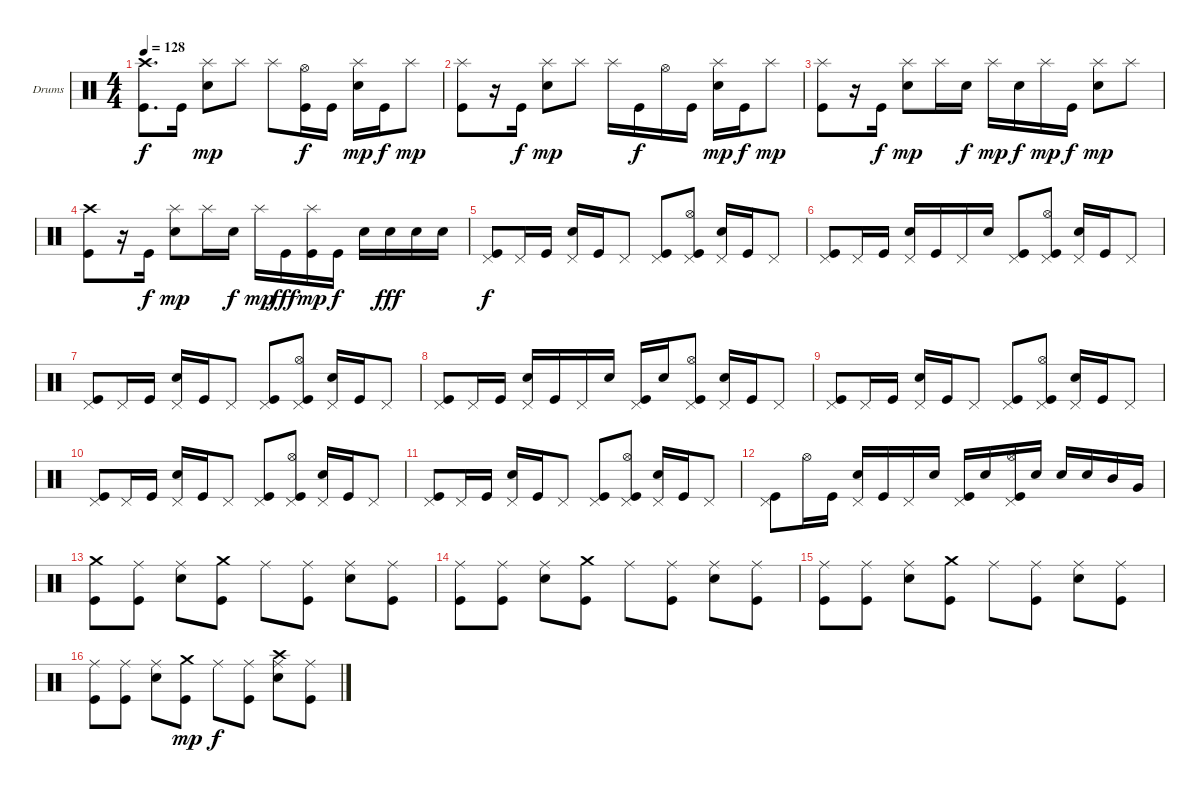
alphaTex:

\defaultSystemsLayout 4
\bracketExtendMode nobrackets
\firstSystemTrackNameOrientation horizontal
\otherSystemsTrackNameOrientation horizontal
\track ("Dave Krusen" "Drums") {instrument percussion}
\staff {score}
\articulation defaults
\ts (4 4)
\tempo 128
\clef neutral
\ks c
("Crash high (hit)" "Kick (hit)").8{d dy f} "Kick (hit)".16 ("Splash (hit)" "Snare (hit) 2").8{dy mp} "Splash (hit)".8 "Splash (hit)".8 ("Hi-Hat (open)" "Kick (hit)").16{dy f} "Kick (hit)".16 ("Splash (hit)" "Snare (hit) 2").16{dy mp} "Kick (hit)".16{dy f} "Splash (hit)".8{dy mp} |
("Splash (hit)" "Kick (hit)").8 r.16 "Kick (hit)".16{dy f} ("Splash (hit)" "Snare (hit) 2").8{dy mp} "Splash (hit)".8 "Splash (hit)".16 "Kick (hit)".16{dy f} "Hi-Hat (open)".16 "Kick (hit)".16 ("Splash (hit)" "Snare (hit) 2").16{dy mp} "Kick (hit)".16{dy f} "Splash (hit)".8{dy mp} |
("Splash (hit)" "Kick (hit)").8 r.16 "Kick (hit)".16{dy f} ("Splash (hit)" "Snare (hit) 2").8{dy mp} "Splash (hit)".16 "Snare (hit) 2".16{dy f} "Splash (hit)".16{dy mp} "Snare (hit) 2".16{dy f} "Splash (hit)".16{dy mp} "Kick (hit)".16{dy f} ("Splash (hit)" "Snare (hit) 2").8{dy mp} "Splash (hit)".8 |
("Crash high (hit)" "Kick (hit)").8 r.16 "Kick (hit)".16{dy f} ("Splash (hit)" "Snare (hit) 2").8{dy mp} "Splash (hit)".16 "Snare (hit) 2".16{dy f} "Splash (hit)".16{dy mp} "Kick (hit)".16{dy fff} ("Splash (hit)" "Kick (hit)").16{dy mp} "Kick (hit)".16{dy f} "Snare (hit) 2".16 "Snare (hit) 2".16{dy fff} "Snare (hit) 2".16 "Snare (hit) 2".16 |
("Pedal Hi-Hat (hit)" "Kick (hit)").8{dy f} "Pedal Hi-Hat (hit)".16 "Kick (hit)".16 ("Pedal Hi-Hat (hit)" "Snare (hit) 2").16 "Kick (hit)".16 "Pedal Hi-Hat (hit)".8 ("Pedal Hi-Hat (hit)" "Kick (hit)").8 ("Pedal Hi-Hat (hit)" "Hi-Hat (open)" "Kick (hit)").8 ("Pedal Hi-Hat (hit)" "Snare (hit) 2").16 "Kick (hit)".16 "Pedal Hi-Hat (hit)".8 |
("Pedal Hi-Hat (hit)" "Kick (hit)").8 "Pedal Hi-Hat (hit)".16 "Kick (hit)".16 ("Pedal Hi-Hat (hit)" "Snare (hit) 2").16 "Kick (hit)".16 "Pedal Hi-Hat (hit)".16 "Snare (hit) 2".16 ("Pedal Hi-Hat (hit)" "Kick (hit)").8 ("Pedal Hi-Hat (hit)" "Hi-Hat (open)" "Kick (hit)").8 ("Pedal Hi-Hat (hit)" "Snare (hit) 2").16 "Kick (hit)".16 "Pedal Hi-Hat (hit)".8 |
("Pedal Hi-Hat (hit)" "Kick (hit)").8 "Pedal Hi-Hat (hit)".16 "Kick (hit)".16 ("Pedal Hi-Hat (hit)" "Snare (hit) 2").16 "Kick (hit)".16 "Pedal Hi-Hat (hit)".8 ("Pedal Hi-Hat (hit)" "Kick (hit)").8 ("Pedal Hi-Hat (hit)" "Hi-Hat (open)" "Kick (hit)").8 ("Pedal Hi-Hat (hit)" "Snare (hit) 2").16 "Kick (hit)".16 "Pedal Hi-Hat (hit)".8 |
("Pedal Hi-Hat (hit)" "Kick (hit)").8 "Pedal Hi-Hat (hit)".16 "Kick (hit)".16 ("Pedal Hi-Hat (hit)" "Snare (hit) 2").16 "Kick (hit)".16 "Pedal Hi-Hat (hit)".16 "Snare (hit) 2".16 ("Pedal Hi-Hat (hit)" "Kick (hit)").16 "Snare (hit) 2".16 ("Pedal Hi-Hat (hit)" "Hi-Hat (open)" "Kick (hit)").8 ("Pedal Hi-Hat (hit)" "Snare (hit) 2").16 "Kick (hit)".16 "Pedal Hi-Hat (hit)".8 |
("Pedal Hi-Hat (hit)" "Kick (hit)").8 "Pedal Hi-Hat (hit)".16 "Kick (hit)".16 ("Pedal Hi-Hat (hit)" "Snare (hit) 2").16 "Kick (hit)".16 "Pedal Hi-Hat (hit)".8 ("Pedal Hi-Hat (hit)" "Kick (hit)").8 ("Pedal Hi-Hat (hit)" "Hi-Hat (open)" "Kick (hit)").8 ("Pedal Hi-Hat (hit)" "Snare (hit) 2").16 "Kick (hit)".16 "Pedal Hi-Hat (hit)".8 |
("Pedal Hi-Hat (hit)" "Kick (hit)").8 "Pedal Hi-Hat (hit)".16 "Kick (hit)".16 ("Pedal Hi-Hat (hit)" "Snare (hit) 2").16 "Kick (hit)".16 "Pedal Hi-Hat (hit)".8 ("Pedal Hi-Hat (hit)" "Kick (hit)").8 ("Pedal Hi-Hat (hit)" "Hi-Hat (open)" "Kick (hit)").8 ("Pedal Hi-Hat (hit)" "Snare (hit) 2").16 "Kick (hit)".16 "Pedal Hi-Hat (hit)".8 |
("Pedal Hi-Hat (hit)" "Kick (hit)").8 "Pedal Hi-Hat (hit)".16 "Kick (hit)".16 ("Pedal Hi-Hat (hit)" "Snare (hit) 2").16 "Kick (hit)".16 "Pedal Hi-Hat (hit)".8 ("Pedal Hi-Hat (hit)" "Kick (hit)").8 ("Pedal Hi-Hat (hit)" "Hi-Hat (open)" "Kick (hit)").8 ("Pedal Hi-Hat (hit)" "Snare (hit) 2").16 "Kick (hit)".16 "Pedal Hi-Hat (hit)".8 |
("Pedal Hi-Hat (hit)" "Kick (hit)").8 "Hi-Hat (open)".16 "Kick (hit)".16 ("Pedal Hi-Hat (hit)" "Snare (hit) 2").16 "Kick (hit)".16 "Pedal Hi-Hat (hit)".16 "Snare (hit) 2".16 ("Pedal Hi-Hat (hit)" "Kick (hit)").16 "Snare (hit) 2".16 ("Pedal Hi-Hat (hit)" "Hi-Hat (open)" "Kick (hit)").16 "Snare (hit) 2".16 "Snare (hit) 2".16 "Snare (hit) 2".16 "Mid Tom (hit)".16 "Very Low Tom (hit)".16 |
("Crash medium (hit)" "Kick (hit)").8 ("Ride (middle)" "Kick (hit)").8 ("Ride (middle)" "Snare (hit) 2").8 ("Crash medium (hit)" "Kick (hit)").8 "Ride (middle)".8 ("Ride (middle)" "Kick (hit)").8 ("Ride (middle)" "Snare (hit) 2").8 ("Ride (middle)" "Kick (hit)").8 |
("Ride (middle)" "Kick (hit)").8 ("Ride (middle)" "Kick (hit)").8 ("Ride (middle)" "Snare (hit) 2").8 ("Crash medium (hit)" "Kick (hit)").8 "Ride (middle)".8 ("Ride (middle)" "Kick (hit)").8 ("Ride (middle)" "Snare (hit) 2").8 ("Ride (middle)" "Kick (hit)").8 |
("Ride (middle)" "Kick (hit)").8 ("Ride (middle)" "Kick (hit)").8 ("Ride (middle)" "Snare (hit) 2").8 ("Crash medium (hit)" "Kick (hit)").8 "Ride (middle)".8 ("Ride (middle)" "Kick (hit)").8 ("Ride (middle)" "Snare (hit) 2").8 ("Ride (middle)" "Kick (hit)").8 |
("Ride (middle)" "Kick (hit)").8 ("Ride (middle)" "Kick (hit)").8 ("Ride (middle)" "Snare (hit) 2").8 ("Crash medium (hit)" "Kick (hit)").8{dy mp} "Ride (middle)".8{dy f} ("Ride (middle)" "Kick (hit)").8 ("Crash high (hit)" "Ride (middle)" "Snare (hit) 2").8 ("Ride (middle)" "Kick (hit)").8
